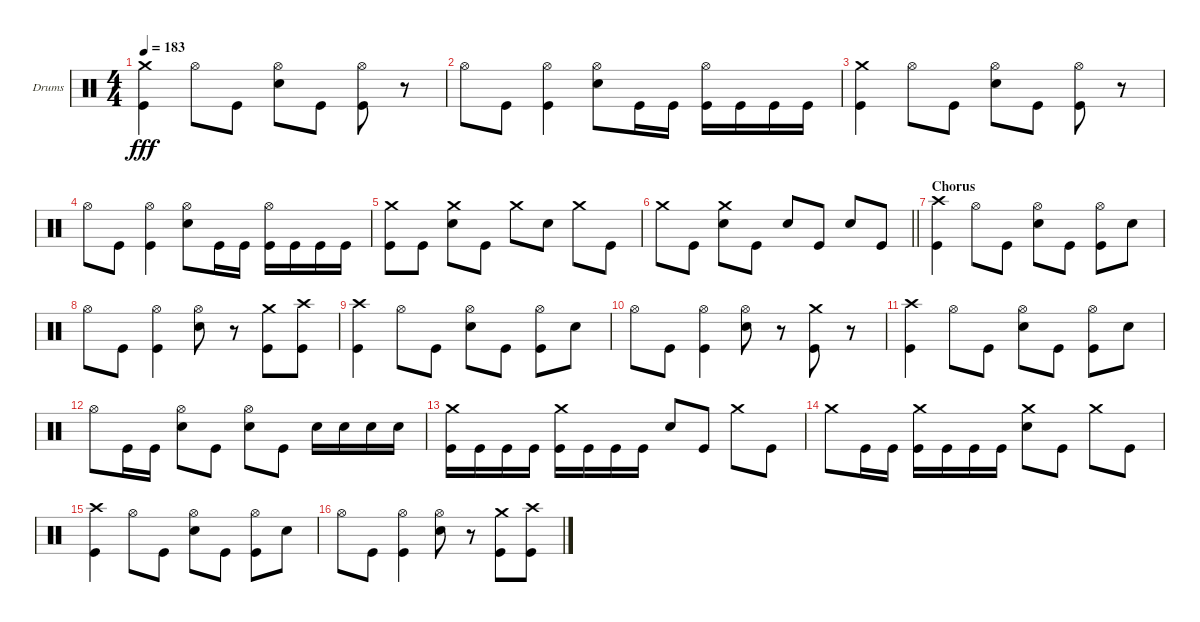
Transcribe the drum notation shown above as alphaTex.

\bracketExtendMode groupsimilarinstruments
\firstSystemTrackNameOrientation horizontal
\otherSystemsTrackNameOrientation horizontal
\track ("Drumkit" "Drums") {instrument percussion}
\staff {score}
\articulation defaults
\ts (4 4)
\tempo 183
\clef neutral
\scale
0.333333
\ks c
("Kick (hit)" "Crash medium (hit)").4{dy fff} "Hi-Hat (open)".8 "Kick (hit)".8 ("Snare (hit) 2" "Hi-Hat (open)").8 "Kick (hit)".8 ("Kick (hit)" "Hi-Hat (open)").8 r.8 |
\scale
0.333333 "Hi-Hat (open)".8 "Kick (hit)".8 ("Kick (hit)" "Hi-Hat (open)").4 ("Snare (hit) 2" "Hi-Hat (open)").8 "Kick (hit)".16 "Kick (hit)".16 ("Kick (hit)" "Hi-Hat (open)").16 "Kick (hit)".16 "Kick (hit)".16 "Kick (hit)".16 |
\scale
0.333333 ("Kick (hit)" "Crash medium (hit)").4 "Hi-Hat (open)".8 "Kick (hit)".8 ("Snare (hit) 2" "Hi-Hat (open)").8 "Kick (hit)".8 ("Kick (hit)" "Hi-Hat (open)").8 r.8 |
\scale
0.333333 "Hi-Hat (open)".8 "Kick (hit)".8 ("Kick (hit)" "Hi-Hat (open)").4 ("Snare (hit) 2" "Hi-Hat (open)").8 "Kick (hit)".16 "Kick (hit)".16 ("Kick (hit)" "Hi-Hat (open)").16 "Kick (hit)".16 "Kick (hit)".16 "Kick (hit)".16 |
\scale
0.333333 ("Kick (hit)" "Crash medium (hit)").8 "Kick (hit)".8 ("Snare (hit) 2" "Crash medium (hit)").8 "Kick (hit)".8 "Crash medium (hit)".8 "Snare (hit) 2".8 "Crash medium (hit)".8 "Kick (hit)".8 |
\scale
0.333333
\barLineRight lightlight "Crash medium (hit)".8 "Kick (hit)".8
("Snare (hit) 2" "Crash medium (hit)").8 "Kick (hit)".8 "Snare (hit) 2".8 "Kick (hit)".8 "Snare (hit) 2".8 "Kick (hit)".8 |
\section ("" "Chorus")
\scale
0.333333 ("Kick (hit)" "Crash high (hit)").4 "Hi-Hat (open)".8 "Kick (hit)".8 ("Snare (hit) 2" "Hi-Hat (open)").8 "Kick (hit)".8 ("Kick (hit)" "Hi-Hat (open)").8 "Snare (hit) 2".8 |
\scale
0.333333 "Hi-Hat (open)".8 "Kick (hit)".8 ("Kick (hit)" "Hi-Hat (open)").4 ("Snare (hit) 2" "Hi-Hat (open)").8 r.8 ("Kick (hit)" "Crash medium (hit)").8 ("Kick (hit)" "Crash high (hit)").8 |
\scale
0.333333 ("Kick (hit)" "Crash high (hit)").4 "Hi-Hat (open)".8 "Kick (hit)".8 ("Snare (hit) 2" "Hi-Hat (open)").8 "Kick (hit)".8 ("Kick (hit)" "Hi-Hat (open)").8 "Snare (hit) 2".8 |
\scale
0.333333 "Hi-Hat (open)".8 "Kick (hit)".8 ("Kick (hit)" "Hi-Hat (open)").4 ("Snare (hit) 2" "Hi-Hat (open)").8 r.8 ("Kick (hit)" "Crash medium (hit)").8 r.8 |
\scale
0.333333 ("Kick (hit)" "Crash high (hit)").4 "Hi-Hat (open)".8 "Kick (hit)".8 ("Snare (hit) 2" "Hi-Hat (open)").8 "Kick (hit)".8 ("Kick (hit)" "Hi-Hat (open)").8 "Snare (hit) 2".8 |
\scale
0.333333 "Hi-Hat (open)".8 "Kick (hit)".16 "Kick (hit)".16 ("Snare (hit) 2" "Hi-Hat (open)").8 "Kick (hit)".8 ("Snare (hit) 2" "Hi-Hat (open)").8 "Kick (hit)".8 "Snare (hit) 2".16 "Snare (hit) 2".16 "Snare (hit) 2".16 "Snare (hit) 2".16 |
\scale
0.333333 ("Kick (hit)" "Crash medium (hit)").16 "Kick (hit)".16 "Kick (hit)".16 "Kick (hit)".16 ("Crash medium (hit)" "Kick (hit)").16 "Kick (hit)".16 "Kick (hit)".16 "Kick (hit)".16 "Snare (hit) 2".8 "Kick (hit)".8 "Crash medium (hit)".8 "Kick (hit)".8 |
\scale
0.333333 "Crash medium (hit)".8 "Kick (hit)".16 "Kick (hit)".16 ("Kick (hit)" "Crash medium (hit)").16 "Kick (hit)".16 "Kick (hit)".16 "Kick (hit)".16 ("Snare (hit) 2" "Crash medium (hit)").8 "Kick (hit)".8 "Crash medium (hit)".8 "Kick (hit)".8 |
\scale
0.333333 ("Kick (hit)" "Crash high (hit)").4 "Hi-Hat (open)".8 "Kick (hit)".8 ("Snare (hit) 2" "Hi-Hat (open)").8 "Kick (hit)".8 ("Kick (hit)" "Hi-Hat (open)").8 "Snare (hit) 2".8 |
\scale
0.333333 "Hi-Hat (open)".8 "Kick (hit)".8 ("Kick (hit)" "Hi-Hat (open)").4 ("Snare (hit) 2" "Hi-Hat (open)").8 r.8 ("Kick (hit)" "Crash medium (hit)").8 ("Kick (hit)" "Crash high (hit)").8
